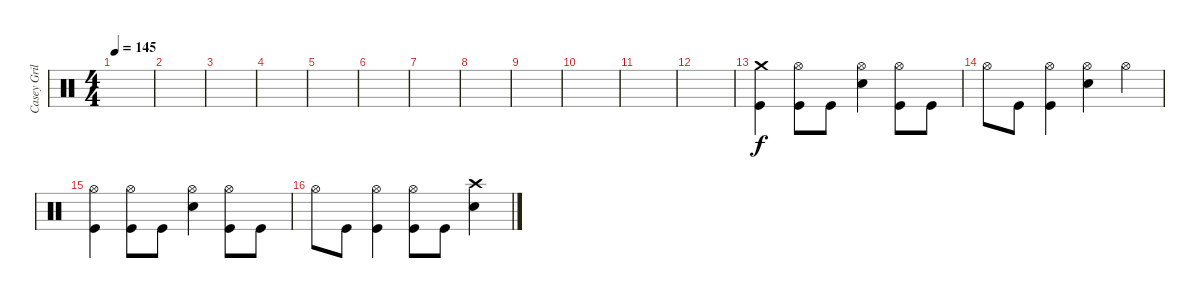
\track ("Casey Grillo" "Casey Gril") {instrument percussion}
\staff {score}
\articulation defaults
\ts (4 4)
\tempo 145
\clef neutral
\ks c
|
|
|
|
|
|
|
|
|
|
|
|
("Crash medium (hit)" "Kick (hit)").4 ("Hi-Hat (open)" "Kick (hit)").8 "Kick (hit)".8 ("Hi-Hat (open)" "Snare (hit) 2").4 ("Hi-Hat (open)" "Kick (hit)").8 "Kick (hit)".8 |
"Hi-Hat (open)".8 "Kick (hit)".8 ("Hi-Hat (open)" "Kick (hit)").4 ("Hi-Hat (open)" "Snare (hit) 2").4 "Hi-Hat (open)".4 |
("Hi-Hat (open)" "Kick (hit)").4 ("Hi-Hat (open)" "Kick (hit)").8 "Kick (hit)".8 ("Hi-Hat (open)" "Snare (hit) 2").4 ("Hi-Hat (open)" "Kick (hit)").8 "Kick (hit)".8 |
"Hi-Hat (open)".8 "Kick (hit)".8 ("Hi-Hat (open)" "Kick (hit)").4 ("Hi-Hat (open)" "Kick (hit)").8 "Kick (hit)".8 ("Crash high (hit)" "Snare (hit) 2").4
